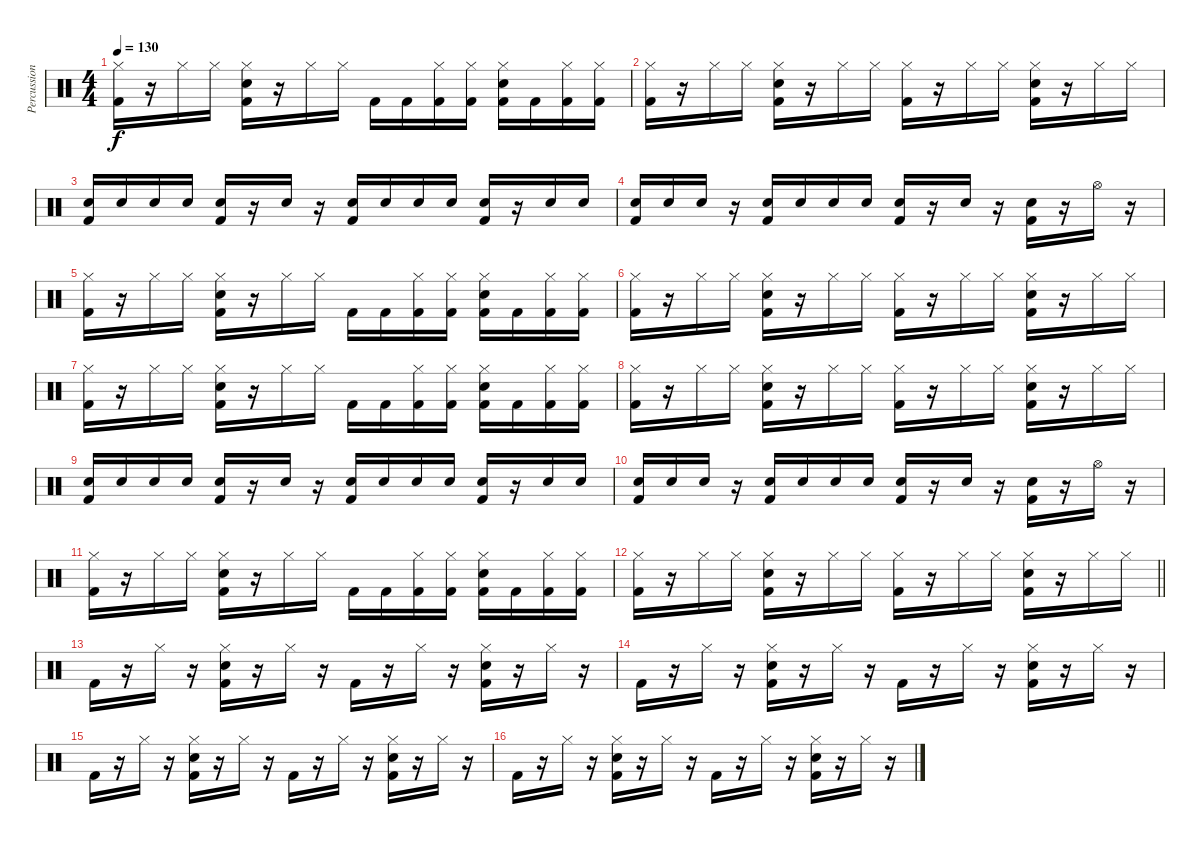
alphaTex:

\track ("Percussion" "Percussion") {instrument percussion}
\staff {score}
\articulation defaults
\ts (4 4)
\tempo 130
\clef neutral
\ks c
("Hi-Hat (closed)" "Kick (hit) 2").16{dy f} r.16 "Hi-Hat (closed)".16 "Hi-Hat (closed)".16 ("Hi-Hat (closed)" "Electric Snare (hit)" "Kick (hit) 2").16 r.16 "Hi-Hat (closed)".16 "Hi-Hat (closed)".16 "Kick (hit) 2".16 "Kick (hit) 2".16 ("Hi-Hat (closed)" "Kick (hit) 2").16 ("Hi-Hat (closed)" "Kick (hit) 2").16 ("Hi-Hat (closed)" "Electric Snare (hit)" "Kick (hit) 2").16 "Kick (hit) 2".16 ("Hi-Hat (closed)" "Kick (hit) 2").16 ("Hi-Hat (closed)" "Kick (hit) 2").16 |
("Hi-Hat (closed)" "Kick (hit) 2").16 r.16 "Hi-Hat (closed)".16 "Hi-Hat (closed)".16 ("Hi-Hat (closed)" "Electric Snare (hit)" "Kick (hit) 2").16 r.16 "Hi-Hat (closed)".16 "Hi-Hat (closed)".16 ("Hi-Hat (closed)" "Kick (hit) 2").16 r.16 "Hi-Hat (closed)".16 "Hi-Hat (closed)".16 ("Hi-Hat (closed)" "Electric Snare (hit)" "Kick (hit) 2").16 r.16 "Hi-Hat (closed)".16 "Hi-Hat (closed)".16 |
("Electric Snare (hit)" "Kick (hit) 2").16 "Electric Snare (hit)".16 "Electric Snare (hit)".16 "Electric Snare (hit)".16 ("Electric Snare (hit)" "Kick (hit) 2").16 r.16 "Electric Snare (hit)".16 r.16 ("Electric Snare (hit)" "Kick (hit) 2").16 "Electric Snare (hit)".16 "Electric Snare (hit)".16 "Electric Snare (hit)".16 ("Electric Snare (hit)" "Kick (hit) 2").16 r.16 "Electric Snare (hit)".16 "Electric Snare (hit)".16 |
("Electric Snare (hit)" "Kick (hit) 2").16 "Electric Snare (hit)".16 "Electric Snare (hit)".16 r.16 ("Electric Snare (hit)" "Kick (hit) 2").16 "Electric Snare (hit)".16 "Electric Snare (hit)".16 "Electric Snare (hit)".16 ("Electric Snare (hit)" "Kick (hit) 2").16 r.16 "Hand Clap (hit)".16 r.16 ("Hand Clap (hit)" "Kick (hit) 2").16 r.16 "Hi-Hat (open)".16 r.16 |
("Hi-Hat (closed)" "Kick (hit) 2").16 r.16 "Hi-Hat (closed)".16 "Hi-Hat (closed)".16 ("Hi-Hat (closed)" "Electric Snare (hit)" "Kick (hit) 2").16 r.16 "Hi-Hat (closed)".16 "Hi-Hat (closed)".16 "Kick (hit) 2".16 "Kick (hit) 2".16 ("Hi-Hat (closed)" "Kick (hit) 2").16 ("Hi-Hat (closed)" "Kick (hit) 2").16 ("Hi-Hat (closed)" "Electric Snare (hit)" "Kick (hit) 2").16 "Kick (hit) 2".16 ("Hi-Hat (closed)" "Kick (hit) 2").16 ("Hi-Hat (closed)" "Kick (hit) 2").16 |
("Hi-Hat (closed)" "Kick (hit) 2").16 r.16 "Hi-Hat (closed)".16 "Hi-Hat (closed)".16 ("Hi-Hat (closed)" "Electric Snare (hit)" "Kick (hit) 2").16 r.16 "Hi-Hat (closed)".16 "Hi-Hat (closed)".16 ("Hi-Hat (closed)" "Kick (hit) 2").16 r.16 "Hi-Hat (closed)".16 "Hi-Hat (closed)".16 ("Hi-Hat (closed)" "Electric Snare (hit)" "Kick (hit) 2").16 r.16 "Hi-Hat (closed)".16 "Hi-Hat (closed)".16 |
("Hi-Hat (closed)" "Kick (hit) 2").16 r.16 "Hi-Hat (closed)".16 "Hi-Hat (closed)".16 ("Hi-Hat (closed)" "Electric Snare (hit)" "Kick (hit) 2").16 r.16 "Hi-Hat (closed)".16 "Hi-Hat (closed)".16 "Kick (hit) 2".16 "Kick (hit) 2".16 ("Hi-Hat (closed)" "Kick (hit) 2").16 ("Hi-Hat (closed)" "Kick (hit) 2").16 ("Hi-Hat (closed)" "Electric Snare (hit)" "Kick (hit) 2").16 "Kick (hit) 2".16 ("Hi-Hat (closed)" "Kick (hit) 2").16 ("Hi-Hat (closed)" "Kick (hit) 2").16 |
("Hi-Hat (closed)" "Kick (hit) 2").16 r.16 "Hi-Hat (closed)".16 "Hi-Hat (closed)".16 ("Hi-Hat (closed)" "Electric Snare (hit)" "Kick (hit) 2").16 r.16 "Hi-Hat (closed)".16 "Hi-Hat (closed)".16 ("Hi-Hat (closed)" "Kick (hit) 2").16 r.16 "Hi-Hat (closed)".16 "Hi-Hat (closed)".16 ("Hi-Hat (closed)" "Electric Snare (hit)" "Kick (hit) 2").16 r.16 "Hi-Hat (closed)".16 "Hi-Hat (closed)".16 |
("Electric Snare (hit)" "Kick (hit) 2").16 "Electric Snare (hit)".16 "Electric Snare (hit)".16 "Electric Snare (hit)".16 ("Electric Snare (hit)" "Kick (hit) 2").16 r.16 "Electric Snare (hit)".16 r.16 ("Electric Snare (hit)" "Kick (hit) 2").16 "Electric Snare (hit)".16 "Electric Snare (hit)".16 "Electric Snare (hit)".16 ("Electric Snare (hit)" "Kick (hit) 2").16 r.16 "Electric Snare (hit)".16 "Electric Snare (hit)".16 |
("Electric Snare (hit)" "Kick (hit) 2").16 "Electric Snare (hit)".16 "Electric Snare (hit)".16 r.16 ("Electric Snare (hit)" "Kick (hit) 2").16 "Electric Snare (hit)".16 "Electric Snare (hit)".16 "Electric Snare (hit)".16 ("Electric Snare (hit)" "Kick (hit) 2").16 r.16 "Hand Clap (hit)".16 r.16 ("Hand Clap (hit)" "Kick (hit) 2").16 r.16 "Hi-Hat (open)".16 r.16 |
("Hi-Hat (closed)" "Kick (hit) 2").16 r.16 "Hi-Hat (closed)".16 "Hi-Hat (closed)".16 ("Hi-Hat (closed)" "Electric Snare (hit)" "Kick (hit) 2").16 r.16 "Hi-Hat (closed)".16 "Hi-Hat (closed)".16 "Kick (hit) 2".16 "Kick (hit) 2".16 ("Hi-Hat (closed)" "Kick (hit) 2").16 ("Hi-Hat (closed)" "Kick (hit) 2").16 ("Hi-Hat (closed)" "Electric Snare (hit)" "Kick (hit) 2").16 "Kick (hit) 2".16 ("Hi-Hat (closed)" "Kick (hit) 2").16 ("Hi-Hat (closed)" "Kick (hit) 2").16 |
\barLineRight lightlight
("Hi-Hat (closed)" "Kick (hit) 2").16 r.16 "Hi-Hat (closed)".16 "Hi-Hat (closed)".16 ("Hi-Hat (closed)" "Electric Snare (hit)" "Kick (hit) 2").16 r.16 "Hi-Hat (closed)".16 "Hi-Hat (closed)".16 ("Hi-Hat (closed)" "Kick (hit) 2").16 r.16 "Hi-Hat (closed)".16 "Hi-Hat (closed)".16 ("Hi-Hat (closed)" "Electric Snare (hit)" "Kick (hit) 2").16 r.16 "Hi-Hat (closed)".16 "Hi-Hat (closed)".16 |
"Kick (hit) 2".16 r.16 "Hi-Hat (closed)".16 r.16 ("Hi-Hat (closed)" "Electric Snare (hit)" "Kick (hit) 2").16 r.16 "Hi-Hat (closed)".16 r.16 "Kick (hit) 2".16 r.16 "Hi-Hat (closed)".16 r.16 ("Hi-Hat (closed)" "Electric Snare (hit)" "Kick (hit) 2").16 r.16 "Hi-Hat (closed)".16 r.16 |
"Kick (hit) 2".16 r.16 "Hi-Hat (closed)".16 r.16 ("Hi-Hat (closed)" "Electric Snare (hit)" "Kick (hit) 2").16 r.16 "Hi-Hat (closed)".16 r.16 "Kick (hit) 2".16 r.16 "Hi-Hat (closed)".16 r.16 ("Hi-Hat (closed)" "Electric Snare (hit)" "Kick (hit) 2").16 r.16 "Hi-Hat (closed)".16 r.16 |
"Kick (hit) 2".16 r.16 "Hi-Hat (closed)".16 r.16 ("Hi-Hat (closed)" "Electric Snare (hit)" "Kick (hit) 2").16 r.16 "Hi-Hat (closed)".16 r.16 "Kick (hit) 2".16 r.16 "Hi-Hat (closed)".16 r.16 ("Hi-Hat (closed)" "Electric Snare (hit)" "Kick (hit) 2").16 r.16 "Hi-Hat (closed)".16 r.16 |
"Kick (hit) 2".16 r.16 "Hi-Hat (closed)".16 r.16 ("Hi-Hat (closed)" "Electric Snare (hit)" "Kick (hit) 2").16 r.16 "Hi-Hat (closed)".16 r.16 "Kick (hit) 2".16 r.16 "Hi-Hat (closed)".16 r.16 ("Hi-Hat (closed)" "Electric Snare (hit)" "Kick (hit) 2").16 r.16 "Hi-Hat (closed)".16 r.16
